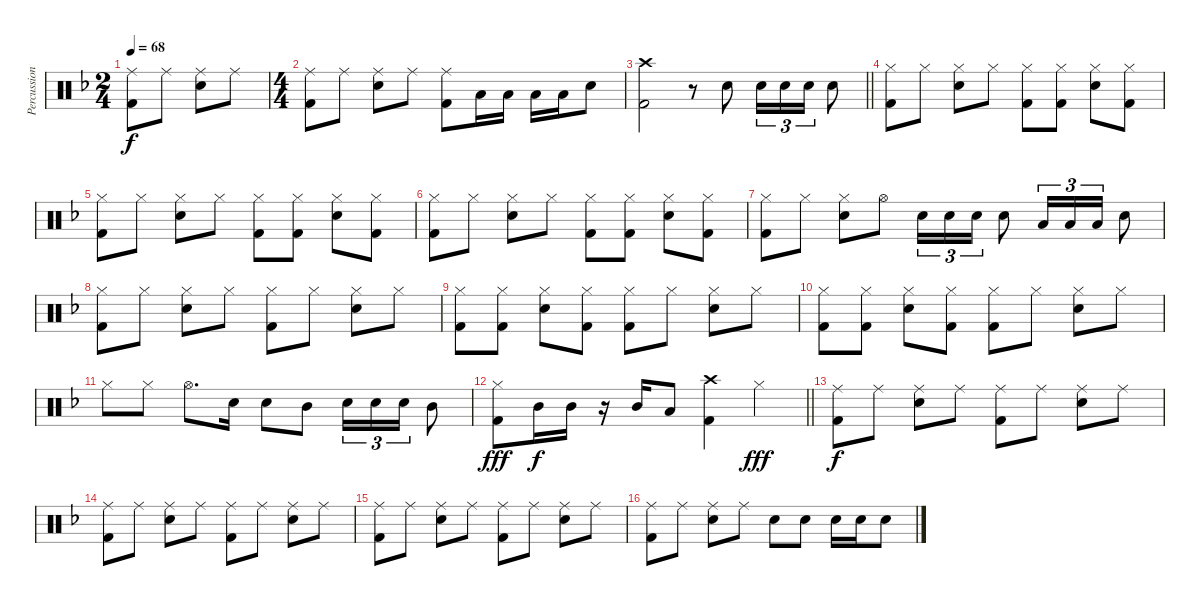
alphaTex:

\track ("Percussion" "Percussion") {instrument percussion}
\staff {score}
\articulation defaults
\ts (2 4)
\tempo 68
\clef neutral
\ks f
("Ride (middle)" "Kick (hit) 2").8{dy f} "Ride (middle)".8 ("Ride (middle)" "Snare (hit) 2").8 "Ride (middle)".8 |
\ts (4 4)
("Ride (middle)" "Kick (hit) 2").8 "Ride (middle)".8 ("Ride (middle)" "Snare (hit) 2").8 "Ride (middle)".8 ("Ride (middle)" "Kick (hit) 2").8 "Low Floor Tom (hit)".16 "Low Floor Tom (hit)".16 "Low Floor Tom (hit)".16 "Low Floor Tom (hit)".16 "Snare (hit) 2".8 |
\barLineRight lightlight
("Crash high (hit)" "Kick (hit) 2").2 r.8 "Snare (hit) 2".8 "Snare (hit) 2".16{tu (3 2)} "Snare (hit) 2".16{tu (3 2)} "Snare (hit) 2".16{tu (3 2)} "Snare (hit) 2".8 |
("Hi-Hat (closed)" "Kick (hit) 2").8 "Hi-Hat (closed)".8 ("Hi-Hat (closed)" "Snare (hit) 2").8 "Hi-Hat (closed)".8 ("Hi-Hat (closed)" "Kick (hit) 2").8 ("Hi-Hat (closed)" "Kick (hit) 2").8 ("Hi-Hat (closed)" "Snare (hit) 2").8 ("Hi-Hat (closed)" "Kick (hit) 2").8 |
("Hi-Hat (closed)" "Kick (hit) 2").8 "Hi-Hat (closed)".8 ("Hi-Hat (closed)" "Snare (hit) 2").8 "Hi-Hat (closed)".8 ("Hi-Hat (closed)" "Kick (hit) 2").8 ("Hi-Hat (closed)" "Kick (hit) 2").8 ("Hi-Hat (closed)" "Snare (hit) 2").8 ("Hi-Hat (closed)" "Kick (hit) 2").8 |
("Hi-Hat (closed)" "Kick (hit) 2").8 "Hi-Hat (closed)".8 ("Hi-Hat (closed)" "Snare (hit) 2").8 "Hi-Hat (closed)".8 ("Hi-Hat (closed)" "Kick (hit) 2").8 ("Hi-Hat (closed)" "Kick (hit) 2").8 ("Hi-Hat (closed)" "Snare (hit) 2").8 ("Hi-Hat (closed)" "Kick (hit) 2").8 |
("Hi-Hat (closed)" "Kick (hit) 2").8 "Hi-Hat (closed)".8 ("Hi-Hat (closed)" "Snare (hit) 2").8 "Hi-Hat (open)".8 "Snare (hit) 2".16{tu (3 2)} "Snare (hit) 2".16{tu (3 2)} "Snare (hit) 2".16{tu (3 2)} "Snare (hit) 2".8 "Low Floor Tom (hit)".16{tu (3 2)} "Low Floor Tom (hit)".16{tu (3 2)} "Low Floor Tom (hit)".16{tu (3 2)} "Snare (hit) 2".8 |
("Hi-Hat (closed)" "Kick (hit) 2").8 "Hi-Hat (closed)".8 ("Hi-Hat (closed)" "Snare (hit) 2").8 "Hi-Hat (closed)".8 ("Hi-Hat (closed)" "Kick (hit) 2").8 "Hi-Hat (closed)".8 ("Hi-Hat (closed)" "Snare (hit) 2").8 "Hi-Hat (closed)".8 |
("Hi-Hat (closed)" "Kick (hit) 2").8 ("Hi-Hat (closed)" "Kick (hit) 2").8 ("Hi-Hat (closed)" "Snare (hit) 2").8 ("Hi-Hat (closed)" "Kick (hit) 2").8 ("Hi-Hat (closed)" "Kick (hit) 2").8 "Hi-Hat (closed)".8 ("Hi-Hat (closed)" "Snare (hit) 2").8 "Hi-Hat (closed)".8 |
("Hi-Hat (closed)" "Kick (hit) 2").8 ("Hi-Hat (closed)" "Kick (hit) 2").8 ("Hi-Hat (closed)" "Snare (hit) 2").8 ("Hi-Hat (closed)" "Kick (hit) 2").8 ("Hi-Hat (closed)" "Kick (hit) 2").8 "Hi-Hat (closed)".8 ("Hi-Hat (closed)" "Snare (hit) 2").8 "Hi-Hat (closed)".8 |
"Hi-Hat (closed)".8 "Hi-Hat (closed)".8 "Hi-Hat (open)".8{d} "Snare (hit) 2".16 "Snare (hit) 2".8 "Mid Tom (hit)".8 "Snare (hit) 2".16{tu (3 2)} "Snare (hit) 2".16{tu (3 2)} "Snare (hit) 2".16{tu (3 2)} "Mid Tom (hit)".8 |
\barLineRight lightlight
("Hi-Hat (closed)" "Kick (hit) 2").8{dy fff} "Mid Tom (hit)".16{dy f} "Mid Tom (hit)".16 r.16 "Mid Tom (hit)".16 "Low Floor Tom (hit)".8 ("Crash high (hit)" "Kick (hit) 2").4 "Hi-Hat (closed)".4{dy fff} |
("Ride (middle)" "Kick (hit) 2").8{dy f} "Ride (middle)".8 ("Ride (middle)" "Snare (hit) 2").8 "Ride (middle)".8 ("Ride (middle)" "Kick (hit) 2").8 "Ride (middle)".8 ("Ride (middle)" "Snare (hit) 2").8 "Ride (middle)".8 |
("Ride (middle)" "Kick (hit) 2").8 "Ride (middle)".8 ("Ride (middle)" "Snare (hit) 2").8 "Ride (middle)".8 ("Ride (middle)" "Kick (hit) 2").8 "Ride (middle)".8 ("Ride (middle)" "Snare (hit) 2").8 "Ride (middle)".8 |
("Ride (middle)" "Kick (hit) 2").8 "Ride (middle)".8 ("Ride (middle)" "Snare (hit) 2").8 "Ride (middle)".8 ("Ride (middle)" "Kick (hit) 2").8 "Ride (middle)".8 ("Ride (middle)" "Snare (hit) 2").8 "Ride (middle)".8 |
("Ride (middle)" "Kick (hit) 2").8 "Ride (middle)".8 ("Ride (middle)" "Snare (hit) 2").8 "Ride (middle)".8 "Snare (hit) 2".8 "Snare (hit) 2".8 "Snare (hit) 2".16 "Snare (hit) 2".16 "Snare (hit) 2".8
